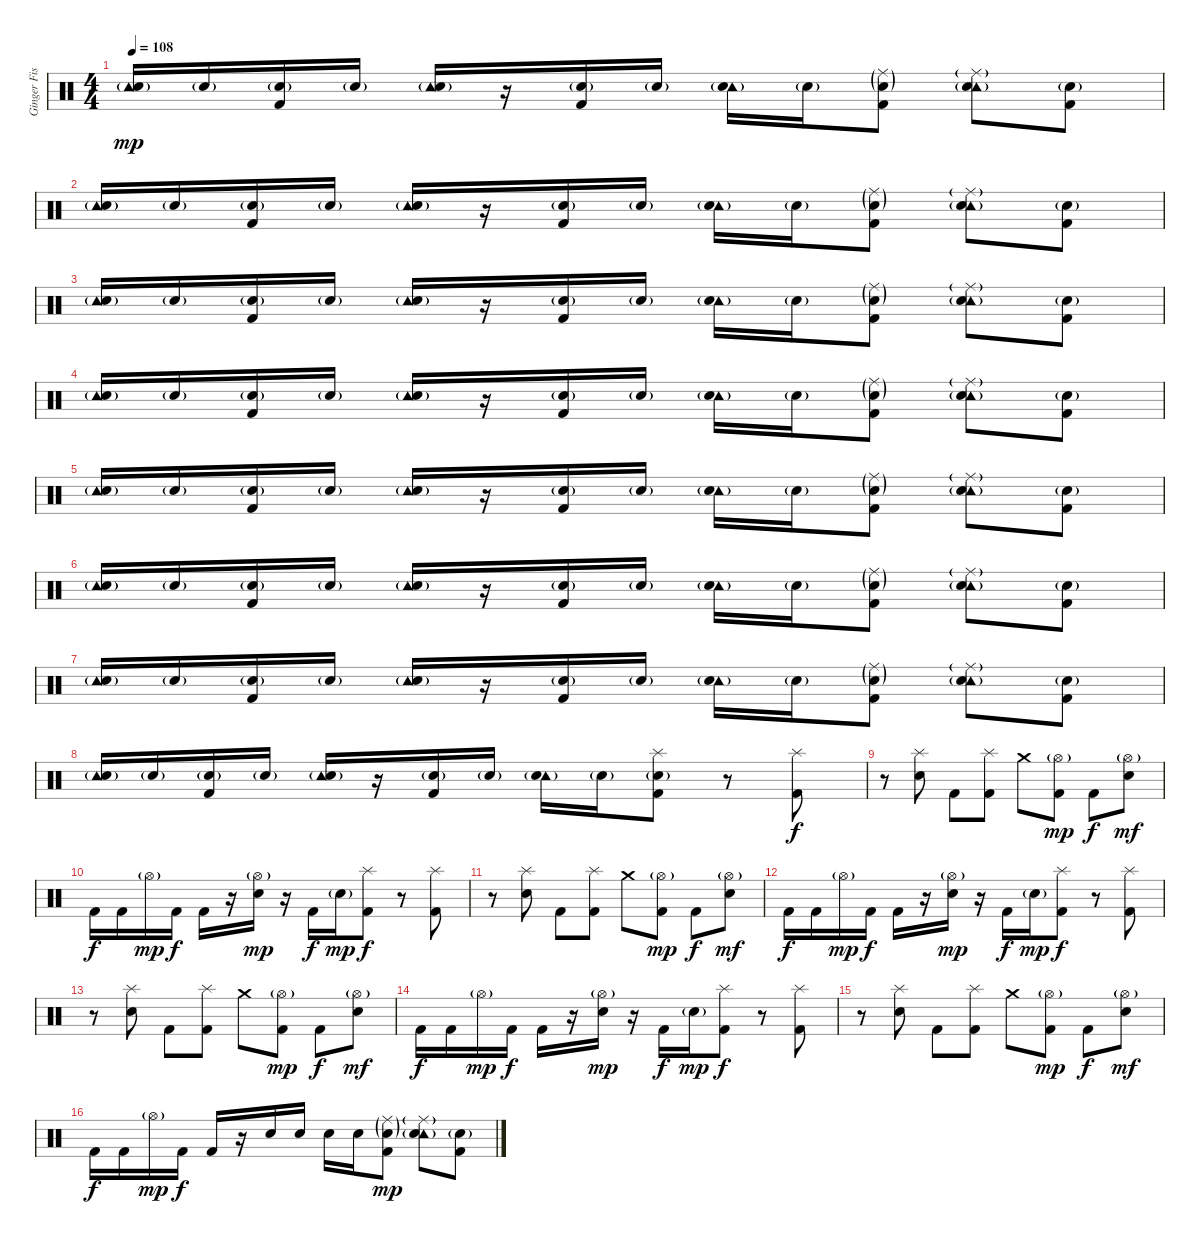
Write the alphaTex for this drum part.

\track ("Ginger Fish" "Ginger Fis") {instrument percussion}
\staff {score}
\articulation defaults
\ts (4 4)
\tempo 108
\clef neutral
\ks c
("Tambourine (hit)" "Electric Snare (hit)"{g}).16{dy mp} "Electric Snare (hit)"{g}.16 ("Electric Snare (hit)"{g} "Kick (hit) 2").16 "Electric Snare (hit)"{g}.16 ("Tambourine (hit)" "Electric Snare (hit)"{g}).16 r.16 ("Electric Snare (hit)"{g} "Kick (hit) 2").16 "Electric Snare (hit)"{g}.16 ("Tambourine (hit)" "Electric Snare (hit)"{g}).16 "Electric Snare (hit)"{g}.16 ("Ride (middle)"{g} "Electric Snare (hit)"{g} "Kick (hit) 2").8 ("Tambourine (hit)" "Ride (middle)"{g} "Electric Snare (hit)"{g}).8 ("Snare (hit) 2"{g} "Kick (hit) 2").8 |
("Tambourine (hit)" "Electric Snare (hit)"{g}).16 "Electric Snare (hit)"{g}.16 ("Electric Snare (hit)"{g} "Kick (hit) 2").16 "Electric Snare (hit)"{g}.16 ("Tambourine (hit)" "Electric Snare (hit)"{g}).16 r.16 ("Electric Snare (hit)"{g} "Kick (hit) 2").16 "Electric Snare (hit)"{g}.16 ("Tambourine (hit)" "Electric Snare (hit)"{g}).16 "Electric Snare (hit)"{g}.16 ("Ride (middle)"{g} "Electric Snare (hit)"{g} "Kick (hit) 2").8 ("Tambourine (hit)" "Ride (middle)"{g} "Electric Snare (hit)"{g}).8 ("Snare (hit) 2"{g} "Kick (hit) 2").8 |
("Tambourine (hit)" "Electric Snare (hit)"{g}).16 "Electric Snare (hit)"{g}.16 ("Electric Snare (hit)"{g} "Kick (hit) 2").16 "Electric Snare (hit)"{g}.16 ("Tambourine (hit)" "Electric Snare (hit)"{g}).16 r.16 ("Electric Snare (hit)"{g} "Kick (hit) 2").16 "Electric Snare (hit)"{g}.16 ("Tambourine (hit)" "Electric Snare (hit)"{g}).16 "Electric Snare (hit)"{g}.16 ("Ride (middle)"{g} "Electric Snare (hit)"{g} "Kick (hit) 2").8 ("Tambourine (hit)" "Ride (middle)"{g} "Electric Snare (hit)"{g}).8 ("Snare (hit) 2"{g} "Kick (hit) 2").8 |
("Tambourine (hit)" "Electric Snare (hit)"{g}).16 "Electric Snare (hit)"{g}.16 ("Electric Snare (hit)"{g} "Kick (hit) 2").16 "Electric Snare (hit)"{g}.16 ("Tambourine (hit)" "Electric Snare (hit)"{g}).16 r.16 ("Electric Snare (hit)"{g} "Kick (hit) 2").16 "Electric Snare (hit)"{g}.16 ("Tambourine (hit)" "Electric Snare (hit)"{g}).16 "Electric Snare (hit)"{g}.16 ("Ride (middle)"{g} "Electric Snare (hit)"{g} "Kick (hit) 2").8 ("Tambourine (hit)" "Ride (middle)"{g} "Electric Snare (hit)"{g}).8 ("Snare (hit) 2"{g} "Kick (hit) 2").8 |
("Tambourine (hit)" "Electric Snare (hit)"{g}).16 "Electric Snare (hit)"{g}.16 ("Electric Snare (hit)"{g} "Kick (hit) 2").16 "Electric Snare (hit)"{g}.16 ("Tambourine (hit)" "Electric Snare (hit)"{g}).16 r.16 ("Electric Snare (hit)"{g} "Kick (hit) 2").16 "Electric Snare (hit)"{g}.16 ("Tambourine (hit)" "Electric Snare (hit)"{g}).16 "Electric Snare (hit)"{g}.16 ("Ride (middle)"{g} "Electric Snare (hit)"{g} "Kick (hit) 2").8 ("Tambourine (hit)" "Ride (middle)"{g} "Electric Snare (hit)"{g}).8 ("Snare (hit) 2"{g} "Kick (hit) 2").8 |
("Tambourine (hit)" "Electric Snare (hit)"{g}).16 "Electric Snare (hit)"{g}.16 ("Electric Snare (hit)"{g} "Kick (hit) 2").16 "Electric Snare (hit)"{g}.16 ("Tambourine (hit)" "Electric Snare (hit)"{g}).16 r.16 ("Electric Snare (hit)"{g} "Kick (hit) 2").16 "Electric Snare (hit)"{g}.16 ("Tambourine (hit)" "Electric Snare (hit)"{g}).16 "Electric Snare (hit)"{g}.16 ("Ride (middle)"{g} "Electric Snare (hit)"{g} "Kick (hit) 2").8 ("Tambourine (hit)" "Ride (middle)"{g} "Electric Snare (hit)"{g}).8 ("Snare (hit) 2"{g} "Kick (hit) 2").8 |
("Tambourine (hit)" "Electric Snare (hit)"{g}).16 "Electric Snare (hit)"{g}.16 ("Electric Snare (hit)"{g} "Kick (hit) 2").16 "Electric Snare (hit)"{g}.16 ("Tambourine (hit)" "Electric Snare (hit)"{g}).16 r.16 ("Electric Snare (hit)"{g} "Kick (hit) 2").16 "Electric Snare (hit)"{g}.16 ("Tambourine (hit)" "Electric Snare (hit)"{g}).16 "Electric Snare (hit)"{g}.16 ("Ride (middle)"{g} "Electric Snare (hit)"{g} "Kick (hit) 2").8 ("Tambourine (hit)" "Ride (middle)"{g} "Electric Snare (hit)"{g}).8 ("Snare (hit) 2"{g} "Kick (hit) 2").8 |
("Tambourine (hit)" "Electric Snare (hit)"{g}).16 "Electric Snare (hit)"{g}.16 ("Electric Snare (hit)"{g} "Kick (hit) 2").16 "Electric Snare (hit)"{g}.16 ("Tambourine (hit)" "Electric Snare (hit)"{g}).16 r.16 ("Electric Snare (hit)"{g} "Kick (hit) 2").16 "Electric Snare (hit)"{g}.16 ("Tambourine (hit)" "Electric Snare (hit)"{g}).16 "Electric Snare (hit)"{g}.16 ("Splash (hit)" "Electric Snare (hit)"{g} "Kick (hit) 2").8 r.8 ("Splash (hit)" "Kick (hit) 2").8{dy f} |
r.8 ("Splash (hit)" "Electric Snare (hit)").8 "Kick (hit) 2".8 ("Splash (hit)" "Kick (hit) 2").8 "Crash medium (hit)".8 ("Hi-Hat (open)"{g} "Kick (hit) 2").8{dy mp} "Kick (hit) 2".8{dy f} ("Hi-Hat (open)"{g} "Electric Snare (hit)").8{dy mf} |
"Kick (hit) 2".16{dy f} "Kick (hit) 2".16 "Hi-Hat (open)"{g}.16{dy mp} "Kick (hit) 2".16{dy f} "Kick (hit) 2".16 r.16 ("Hi-Hat (open)"{g} "Electric Snare (hit)").16{dy mp} r.16 "Kick (hit) 2".16{dy f} "Electric Snare (hit)"{g}.16{dy mp} ("Splash (hit)" "Kick (hit) 2").8{dy f} r.8 ("Splash (hit)" "Kick (hit) 2").8 |
r.8 ("Splash (hit)" "Electric Snare (hit)").8 "Kick (hit) 2".8 ("Splash (hit)" "Kick (hit) 2").8 "Crash medium (hit)".8 ("Hi-Hat (open)"{g} "Kick (hit) 2").8{dy mp} "Kick (hit) 2".8{dy f} ("Hi-Hat (open)"{g} "Electric Snare (hit)").8{dy mf} |
"Kick (hit) 2".16{dy f} "Kick (hit) 2".16 "Hi-Hat (open)"{g}.16{dy mp} "Kick (hit) 2".16{dy f} "Kick (hit) 2".16 r.16 ("Hi-Hat (open)"{g} "Electric Snare (hit)").16{dy mp} r.16 "Kick (hit) 2".16{dy f} "Electric Snare (hit)"{g}.16{dy mp} ("Splash (hit)" "Kick (hit) 2").8{dy f} r.8 ("Splash (hit)" "Kick (hit) 2").8 |
r.8 ("Splash (hit)" "Electric Snare (hit)").8 "Kick (hit) 2".8 ("Splash (hit)" "Kick (hit) 2").8 "Crash medium (hit)".8 ("Hi-Hat (open)"{g} "Kick (hit) 2").8{dy mp} "Kick (hit) 2".8{dy f} ("Hi-Hat (open)"{g} "Electric Snare (hit)").8{dy mf} |
"Kick (hit) 2".16{dy f} "Kick (hit) 2".16 "Hi-Hat (open)"{g}.16{dy mp} "Kick (hit) 2".16{dy f} "Kick (hit) 2".16 r.16 ("Hi-Hat (open)"{g} "Electric Snare (hit)").16{dy mp} r.16 "Kick (hit) 2".16{dy f} "Electric Snare (hit)"{g}.16{dy mp} ("Splash (hit)" "Kick (hit) 2").8{dy f} r.8 ("Splash (hit)" "Kick (hit) 2").8 |
r.8 ("Splash (hit)" "Electric Snare (hit)").8 "Kick (hit) 2".8 ("Splash (hit)" "Kick (hit) 2").8 "Crash medium (hit)".8 ("Hi-Hat (open)"{g} "Kick (hit) 2").8{dy mp} "Kick (hit) 2".8{dy f} ("Hi-Hat (open)"{g} "Electric Snare (hit)").8{dy mf} |
"Kick (hit) 2".16{dy f} "Kick (hit) 2".16 "Hi-Hat (open)"{g}.16{dy mp} "Kick (hit) 2".16{dy f} "Kick (hit) 2".16 r.16 "Electric Snare (hit)".16 "Electric Snare (hit)".16 "Electric Snare (hit)".16 "Electric Snare (hit)".16 ("Ride (middle)"{g} "Electric Snare (hit)"{g} "Kick (hit) 2").8{dy mp} ("Tambourine (hit)" "Ride (middle)"{g} "Electric Snare (hit)"{g}).8 ("Snare (hit) 2"{g} "Kick (hit) 2").8
